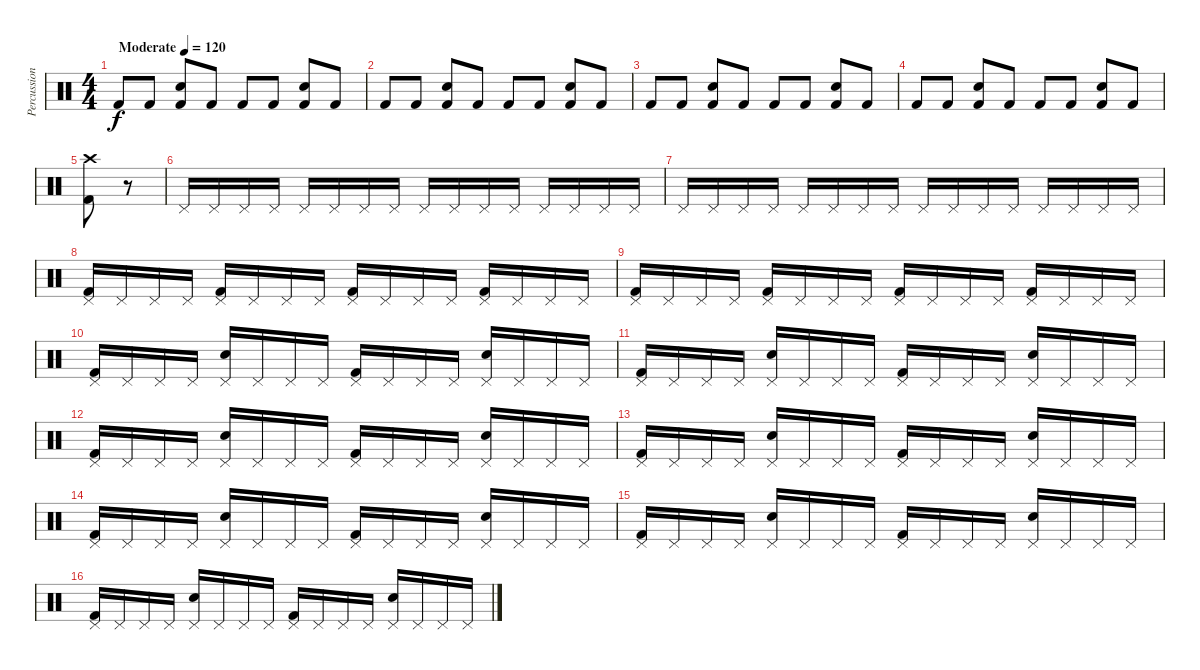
\track ("Percussion" "Percussion") {instrument percussion}
\staff {score}
\articulation defaults
\ts (4 4)
\tempo (120 "Moderate")
\clef neutral
\ks c "Kick (hit) 2".8{dy f} "Kick (hit) 2".8
("Electric Snare (hit)" "Kick (hit) 2").8 "Kick (hit) 2".8 "Kick (hit) 2".8 "Kick (hit) 2".8 ("Electric Snare (hit)" "Kick (hit) 2").8 "Kick (hit) 2".8 |
"Kick (hit) 2".8 "Kick (hit) 2".8 ("Electric Snare (hit)" "Kick (hit) 2").8 "Kick (hit) 2".8 "Kick (hit) 2".8 "Kick (hit) 2".8 ("Electric Snare (hit)" "Kick (hit) 2").8 "Kick (hit) 2".8 |
"Kick (hit) 2".8 "Kick (hit) 2".8 ("Electric Snare (hit)" "Kick (hit) 2").8 "Kick (hit) 2".8 "Kick (hit) 2".8 "Kick (hit) 2".8 ("Electric Snare (hit)" "Kick (hit) 2").8 "Kick (hit) 2".8 |
"Kick (hit) 2".8 "Kick (hit) 2".8 ("Electric Snare (hit)" "Kick (hit) 2").8 "Kick (hit) 2".8 "Kick (hit) 2".8 "Kick (hit) 2".8 ("Electric Snare (hit)" "Kick (hit) 2").8 "Kick (hit) 2".8 |
("Crash high (hit)" "Kick (hit) 2").8 r.8 |
"Pedal Hi-Hat (hit)".16 "Pedal Hi-Hat (hit)".16 "Pedal Hi-Hat (hit)".16 "Pedal Hi-Hat (hit)".16 "Pedal Hi-Hat (hit)".16 "Pedal Hi-Hat (hit)".16 "Pedal Hi-Hat (hit)".16 "Pedal Hi-Hat (hit)".16 "Pedal Hi-Hat (hit)".16 "Pedal Hi-Hat (hit)".16 "Pedal Hi-Hat (hit)".16 "Pedal Hi-Hat (hit)".16 "Pedal Hi-Hat (hit)".16 "Pedal Hi-Hat (hit)".16 "Pedal Hi-Hat (hit)".16 "Pedal Hi-Hat (hit)".16 |
"Pedal Hi-Hat (hit)".16 "Pedal Hi-Hat (hit)".16 "Pedal Hi-Hat (hit)".16 "Pedal Hi-Hat (hit)".16 "Pedal Hi-Hat (hit)".16 "Pedal Hi-Hat (hit)".16 "Pedal Hi-Hat (hit)".16 "Pedal Hi-Hat (hit)".16 "Pedal Hi-Hat (hit)".16 "Pedal Hi-Hat (hit)".16 "Pedal Hi-Hat (hit)".16 "Pedal Hi-Hat (hit)".16 "Pedal Hi-Hat (hit)".16 "Pedal Hi-Hat (hit)".16 "Pedal Hi-Hat (hit)".16 "Pedal Hi-Hat (hit)".16 |
("Pedal Hi-Hat (hit)" "Kick (hit) 2").16 "Pedal Hi-Hat (hit)".16 "Pedal Hi-Hat (hit)".16 "Pedal Hi-Hat (hit)".16 ("Pedal Hi-Hat (hit)" "Kick (hit) 2").16 "Pedal Hi-Hat (hit)".16 "Pedal Hi-Hat (hit)".16 "Pedal Hi-Hat (hit)".16 ("Pedal Hi-Hat (hit)" "Kick (hit) 2").16 "Pedal Hi-Hat (hit)".16 "Pedal Hi-Hat (hit)".16 "Pedal Hi-Hat (hit)".16 ("Pedal Hi-Hat (hit)" "Kick (hit) 2").16 "Pedal Hi-Hat (hit)".16 "Pedal Hi-Hat (hit)".16 "Pedal Hi-Hat (hit)".16 |
("Pedal Hi-Hat (hit)" "Kick (hit) 2").16 "Pedal Hi-Hat (hit)".16 "Pedal Hi-Hat (hit)".16 "Pedal Hi-Hat (hit)".16 ("Pedal Hi-Hat (hit)" "Kick (hit) 2").16 "Pedal Hi-Hat (hit)".16 "Pedal Hi-Hat (hit)".16 "Pedal Hi-Hat (hit)".16 ("Pedal Hi-Hat (hit)" "Kick (hit) 2").16 "Pedal Hi-Hat (hit)".16 "Pedal Hi-Hat (hit)".16 "Pedal Hi-Hat (hit)".16 ("Pedal Hi-Hat (hit)" "Kick (hit) 2").16 "Pedal Hi-Hat (hit)".16 "Pedal Hi-Hat (hit)".16 "Pedal Hi-Hat (hit)".16 |
("Pedal Hi-Hat (hit)" "Kick (hit) 2").16 "Pedal Hi-Hat (hit)".16 "Pedal Hi-Hat (hit)".16 "Pedal Hi-Hat (hit)".16 ("Pedal Hi-Hat (hit)" "Electric Snare (hit)").16 "Pedal Hi-Hat (hit)".16 "Pedal Hi-Hat (hit)".16 "Pedal Hi-Hat (hit)".16 ("Pedal Hi-Hat (hit)" "Kick (hit) 2").16 "Pedal Hi-Hat (hit)".16 "Pedal Hi-Hat (hit)".16 "Pedal Hi-Hat (hit)".16 ("Pedal Hi-Hat (hit)" "Electric Snare (hit)").16 "Pedal Hi-Hat (hit)".16 "Pedal Hi-Hat (hit)".16 "Pedal Hi-Hat (hit)".16 |
("Pedal Hi-Hat (hit)" "Kick (hit) 2").16 "Pedal Hi-Hat (hit)".16 "Pedal Hi-Hat (hit)".16 "Pedal Hi-Hat (hit)".16 ("Pedal Hi-Hat (hit)" "Electric Snare (hit)").16 "Pedal Hi-Hat (hit)".16 "Pedal Hi-Hat (hit)".16 "Pedal Hi-Hat (hit)".16 ("Pedal Hi-Hat (hit)" "Kick (hit) 2").16 "Pedal Hi-Hat (hit)".16 "Pedal Hi-Hat (hit)".16 "Pedal Hi-Hat (hit)".16 ("Pedal Hi-Hat (hit)" "Electric Snare (hit)").16 "Pedal Hi-Hat (hit)".16 "Pedal Hi-Hat (hit)".16 "Pedal Hi-Hat (hit)".16 |
("Pedal Hi-Hat (hit)" "Kick (hit) 2").16 "Pedal Hi-Hat (hit)".16 "Pedal Hi-Hat (hit)".16 "Pedal Hi-Hat (hit)".16 ("Pedal Hi-Hat (hit)" "Electric Snare (hit)").16 "Pedal Hi-Hat (hit)".16 "Pedal Hi-Hat (hit)".16 "Pedal Hi-Hat (hit)".16 ("Pedal Hi-Hat (hit)" "Kick (hit) 2").16 "Pedal Hi-Hat (hit)".16 "Pedal Hi-Hat (hit)".16 "Pedal Hi-Hat (hit)".16 ("Pedal Hi-Hat (hit)" "Electric Snare (hit)").16 "Pedal Hi-Hat (hit)".16 "Pedal Hi-Hat (hit)".16 "Pedal Hi-Hat (hit)".16 |
("Pedal Hi-Hat (hit)" "Kick (hit) 2").16 "Pedal Hi-Hat (hit)".16 "Pedal Hi-Hat (hit)".16 "Pedal Hi-Hat (hit)".16 ("Pedal Hi-Hat (hit)" "Electric Snare (hit)").16 "Pedal Hi-Hat (hit)".16 "Pedal Hi-Hat (hit)".16 "Pedal Hi-Hat (hit)".16 ("Pedal Hi-Hat (hit)" "Kick (hit) 2").16 "Pedal Hi-Hat (hit)".16 "Pedal Hi-Hat (hit)".16 "Pedal Hi-Hat (hit)".16 ("Pedal Hi-Hat (hit)" "Electric Snare (hit)").16 "Pedal Hi-Hat (hit)".16 "Pedal Hi-Hat (hit)".16 "Pedal Hi-Hat (hit)".16 |
("Pedal Hi-Hat (hit)" "Kick (hit) 2").16 "Pedal Hi-Hat (hit)".16 "Pedal Hi-Hat (hit)".16 "Pedal Hi-Hat (hit)".16 ("Pedal Hi-Hat (hit)" "Electric Snare (hit)").16 "Pedal Hi-Hat (hit)".16 "Pedal Hi-Hat (hit)".16 "Pedal Hi-Hat (hit)".16 ("Pedal Hi-Hat (hit)" "Kick (hit) 2").16 "Pedal Hi-Hat (hit)".16 "Pedal Hi-Hat (hit)".16 "Pedal Hi-Hat (hit)".16 ("Pedal Hi-Hat (hit)" "Electric Snare (hit)").16 "Pedal Hi-Hat (hit)".16 "Pedal Hi-Hat (hit)".16 "Pedal Hi-Hat (hit)".16 |
("Pedal Hi-Hat (hit)" "Kick (hit) 2").16 "Pedal Hi-Hat (hit)".16 "Pedal Hi-Hat (hit)".16 "Pedal Hi-Hat (hit)".16 ("Pedal Hi-Hat (hit)" "Electric Snare (hit)").16 "Pedal Hi-Hat (hit)".16 "Pedal Hi-Hat (hit)".16 "Pedal Hi-Hat (hit)".16 ("Pedal Hi-Hat (hit)" "Kick (hit) 2").16 "Pedal Hi-Hat (hit)".16 "Pedal Hi-Hat (hit)".16 "Pedal Hi-Hat (hit)".16 ("Pedal Hi-Hat (hit)" "Electric Snare (hit)").16 "Pedal Hi-Hat (hit)".16 "Pedal Hi-Hat (hit)".16 "Pedal Hi-Hat (hit)".16 |
("Pedal Hi-Hat (hit)" "Kick (hit) 2").16 "Pedal Hi-Hat (hit)".16 "Pedal Hi-Hat (hit)".16 "Pedal Hi-Hat (hit)".16 ("Pedal Hi-Hat (hit)" "Electric Snare (hit)").16 "Pedal Hi-Hat (hit)".16 "Pedal Hi-Hat (hit)".16 "Pedal Hi-Hat (hit)".16 ("Pedal Hi-Hat (hit)" "Kick (hit) 2").16 "Pedal Hi-Hat (hit)".16 "Pedal Hi-Hat (hit)".16 "Pedal Hi-Hat (hit)".16 ("Pedal Hi-Hat (hit)" "Electric Snare (hit)").16 "Pedal Hi-Hat (hit)".16 "Pedal Hi-Hat (hit)".16 "Pedal Hi-Hat (hit)".16
